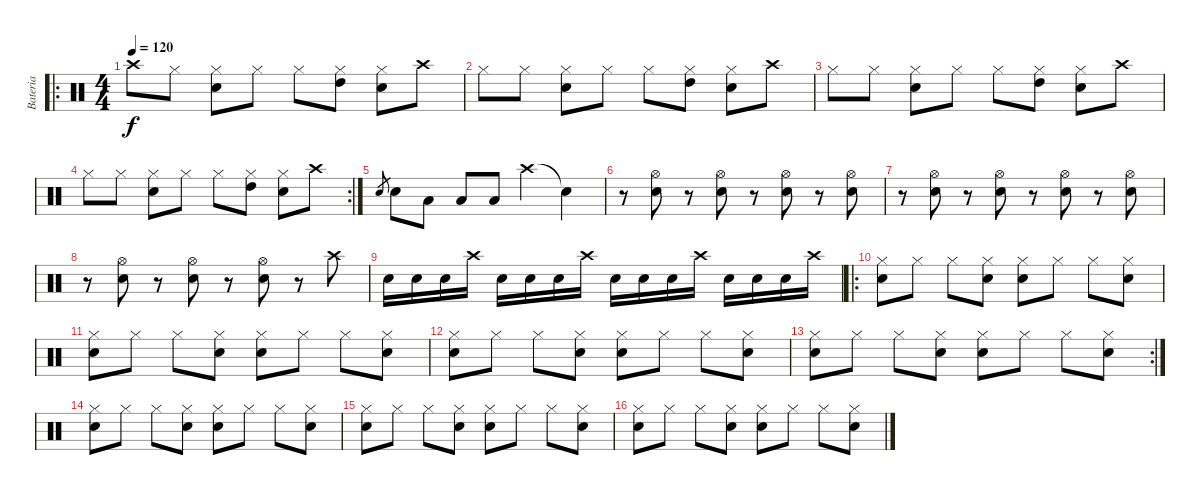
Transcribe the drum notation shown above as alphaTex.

\track ("Bateria" "Bateria") {instrument percussion}
\staff {score}
\articulation defaults
\ro
\ts (4 4)
\section ("" "")
\tempo 120
\clef neutral
\ks c "Crash high (hit)".8{dy f} "Hi-Hat (closed)".8
("Hi-Hat (closed)" "Snare (hit) 2").8 "Hi-Hat (closed)".8 "Hi-Hat (closed)".8 ("Hi-Hat (closed)" "High Tom (hit)").8 ("Hi-Hat (closed)" "Snare (hit) 2").8 "Crash high (hit)".8 |
"Hi-Hat (closed)".8 "Hi-Hat (closed)".8 ("Hi-Hat (closed)" "Snare (hit) 2").8 "Hi-Hat (closed)".8 "Hi-Hat (closed)".8 ("Hi-Hat (closed)" "High Tom (hit)").8 ("Hi-Hat (closed)" "Snare (hit) 2").8 "Crash high (hit)".8 |
"Hi-Hat (closed)".8 "Hi-Hat (closed)".8 ("Hi-Hat (closed)" "Snare (hit) 2").8 "Hi-Hat (closed)".8 "Hi-Hat (closed)".8 ("Hi-Hat (closed)" "High Tom (hit)").8 ("Hi-Hat (closed)" "Snare (hit) 2").8 "Crash high (hit)".8 |
\rc 2 "Hi-Hat (closed)".8 "Hi-Hat (closed)".8
("Hi-Hat (closed)" "Snare (hit) 2").8 "Hi-Hat (closed)".8 "Hi-Hat (closed)".8 ("Hi-Hat (closed)" "High Tom (hit)").8 ("Hi-Hat (closed)" "Snare (hit) 2").8 "Crash high (hit)".8 |
\section ("" "")
"Snare (hit) 2".8{gr} "Snare (hit) 2".8 "Low Floor Tom (hit)".8 "Low Floor Tom (hit)".8 "Low Floor Tom (hit)".8 "Crash high (hit)".4 "Snare (hit)"{t}.4 |
r.8 ("Hi-Hat (open)" "Snare (hit) 2").8 r.8 ("Hi-Hat (open)" "Snare (hit) 2").8 r.8 ("Hi-Hat (open)" "Snare (hit) 2").8 r.8 ("Hi-Hat (open)" "Snare (hit) 2").8 |
r.8 ("Hi-Hat (open)" "Snare (hit) 2").8 r.8 ("Hi-Hat (open)" "Snare (hit) 2").8 r.8 ("Hi-Hat (open)" "Snare (hit) 2").8 r.8 ("Hi-Hat (open)" "Snare (hit) 2").8 |
r.8 ("Hi-Hat (open)" "Snare (hit) 2").8 r.8 ("Hi-Hat (open)" "Snare (hit) 2").8 r.8 ("Hi-Hat (open)" "Snare (hit) 2").8 r.8 "Crash high (hit)".8 |
"Snare (hit) 2".16 "Snare (hit) 2".16 "Snare (hit) 2".16 "Crash high (hit)".16 "Snare (hit) 2".16 "Snare (hit) 2".16 "Snare (hit) 2".16 "Crash high (hit)".16 "Snare (hit) 2".16 "Snare (hit) 2".16 "Snare (hit) 2".16 "Crash high (hit)".16 "Snare (hit) 2".16 "Snare (hit) 2".16 "Snare (hit) 2".16 "Crash high (hit)".16 |
\ro
\section ("" "")
("Hi-Hat (closed)" "Snare (hit) 2").8 "Hi-Hat (closed)".8 "Hi-Hat (closed)".8 ("Hi-Hat (closed)" "Snare (hit) 2").8 ("Hi-Hat (closed)" "Snare (hit) 2").8 "Hi-Hat (closed)".8 "Hi-Hat (closed)".8 ("Hi-Hat (closed)" "Snare (hit) 2").8 |
("Hi-Hat (closed)" "Snare (hit) 2").8 "Hi-Hat (closed)".8 "Hi-Hat (closed)".8 ("Hi-Hat (closed)" "Snare (hit) 2").8 ("Hi-Hat (closed)" "Snare (hit) 2").8 "Hi-Hat (closed)".8 "Hi-Hat (closed)".8 ("Hi-Hat (closed)" "Snare (hit) 2").8 |
("Hi-Hat (closed)" "Snare (hit) 2").8 "Hi-Hat (closed)".8 "Hi-Hat (closed)".8 ("Hi-Hat (closed)" "Snare (hit) 2").8 ("Hi-Hat (closed)" "Snare (hit) 2").8 "Hi-Hat (closed)".8 "Hi-Hat (closed)".8 ("Hi-Hat (closed)" "Snare (hit) 2").8 |
\rc 2
("Hi-Hat (closed)" "Snare (hit) 2").8 "Hi-Hat (closed)".8 "Hi-Hat (closed)".8 ("Hi-Hat (closed)" "Snare (hit) 2").8 ("Hi-Hat (closed)" "Snare (hit) 2").8 "Hi-Hat (closed)".8 "Hi-Hat (closed)".8 ("Hi-Hat (closed)" "Snare (hit) 2").8 |
("Hi-Hat (closed)" "Snare (hit) 2").8 "Hi-Hat (closed)".8 "Hi-Hat (closed)".8 ("Hi-Hat (closed)" "Snare (hit) 2").8 ("Hi-Hat (closed)" "Snare (hit) 2").8 "Hi-Hat (closed)".8 "Hi-Hat (closed)".8 ("Hi-Hat (closed)" "Snare (hit) 2").8 |
("Hi-Hat (closed)" "Snare (hit) 2").8 "Hi-Hat (closed)".8 "Hi-Hat (closed)".8 ("Hi-Hat (closed)" "Snare (hit) 2").8 ("Hi-Hat (closed)" "Snare (hit) 2").8 "Hi-Hat (closed)".8 "Hi-Hat (closed)".8 ("Hi-Hat (closed)" "Snare (hit) 2").8 |
("Hi-Hat (closed)" "Snare (hit) 2").8 "Hi-Hat (closed)".8 "Hi-Hat (closed)".8 ("Hi-Hat (closed)" "Snare (hit) 2").8 ("Hi-Hat (closed)" "Snare (hit) 2").8 "Hi-Hat (closed)".8 "Hi-Hat (closed)".8 ("Hi-Hat (closed)" "Snare (hit) 2").8
